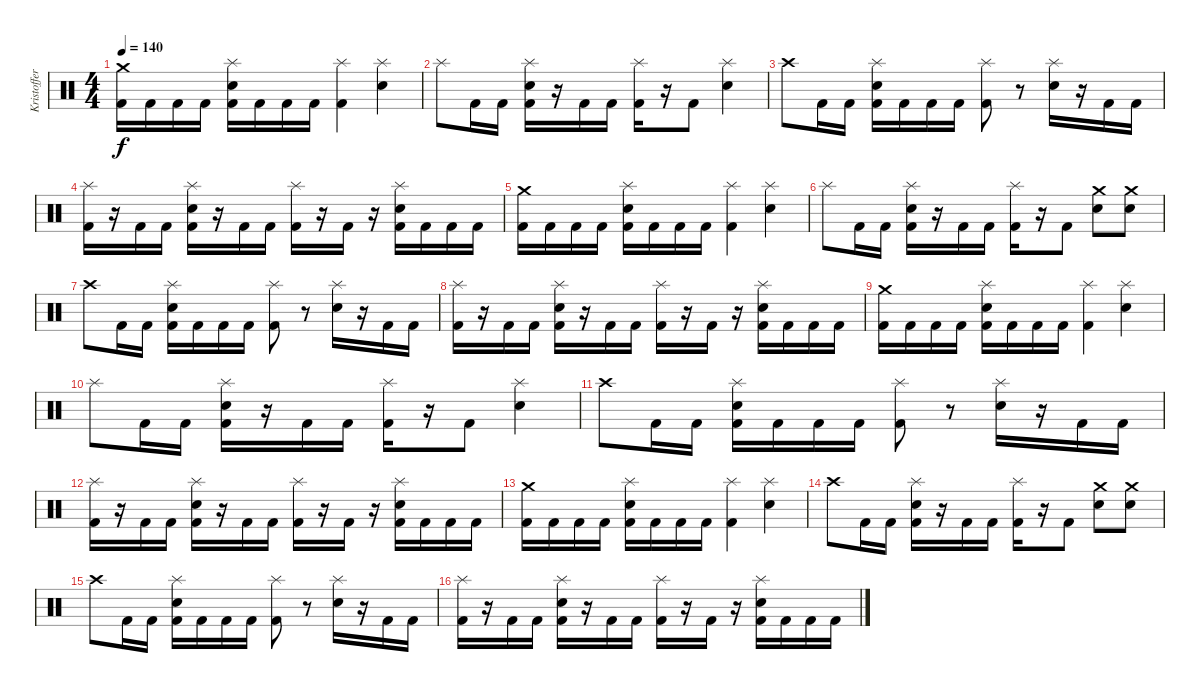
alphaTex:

\track ("Kristoffer (Drums)" "Kristoffer") {instrument percussion}
\staff {score}
\articulation defaults
\ts (4 4)
\tempo 140
\clef neutral
\ks c
("Kick (hit) 2" "Crash medium (hit)").16{dy f} "Kick (hit) 2".16 "Kick (hit) 2".16 "Kick (hit) 2".16 ("Kick (hit) 2" "Electric Snare (hit)" "Splash (hit)").16 "Kick (hit) 2".16 "Kick (hit) 2".16 "Kick (hit) 2".16 ("Kick (hit) 2" "Splash (hit)").4 ("Electric Snare (hit)" "Splash (hit)").4 |
"Splash (hit)".8 "Kick (hit) 2".16 "Kick (hit) 2".16 ("Kick (hit) 2" "Electric Snare (hit)" "Splash (hit)").16 r.16 "Kick (hit) 2".16 "Kick (hit) 2".16 ("Kick (hit) 2" "Splash (hit)").16 r.16 "Kick (hit) 2".8 ("Electric Snare (hit)" "Splash (hit)").4 |
"Crash high (hit)".8 "Kick (hit) 2".16 "Kick (hit) 2".16 ("Kick (hit) 2" "Electric Snare (hit)" "Splash (hit)").16 "Kick (hit) 2".16 "Kick (hit) 2".16 "Kick (hit) 2".16 ("Kick (hit) 2" "Splash (hit)").8 r.8 ("Electric Snare (hit)" "Splash (hit)").16 r.16 "Kick (hit) 2".16 "Kick (hit) 2".16 |
("Kick (hit) 2" "Splash (hit)").16 r.16 "Kick (hit) 2".16 "Kick (hit) 2".16 ("Kick (hit) 2" "Electric Snare (hit)" "Splash (hit)").16 r.16 "Kick (hit) 2".16 "Kick (hit) 2".16 ("Kick (hit) 2" "Splash (hit)").16 r.16 "Kick (hit) 2".16 r.16 ("Kick (hit) 2" "Electric Snare (hit)" "Splash (hit)").16 "Kick (hit) 2".16 "Kick (hit) 2".16 "Kick (hit) 2".16 |
("Kick (hit) 2" "Crash medium (hit)").16 "Kick (hit) 2".16 "Kick (hit) 2".16 "Kick (hit) 2".16 ("Kick (hit) 2" "Electric Snare (hit)" "Splash (hit)").16 "Kick (hit) 2".16 "Kick (hit) 2".16 "Kick (hit) 2".16 ("Kick (hit) 2" "Splash (hit)").4 ("Electric Snare (hit)" "Splash (hit)").4 |
"Splash (hit)".8 "Kick (hit) 2".16 "Kick (hit) 2".16 ("Kick (hit) 2" "Electric Snare (hit)" "Splash (hit)").16 r.16 "Kick (hit) 2".16 "Kick (hit) 2".16 ("Kick (hit) 2" "Splash (hit)").16 r.16 "Kick (hit) 2".8 ("Electric Snare (hit)" "Crash medium (hit)").8 ("Electric Snare (hit)" "Crash medium (hit)").8 |
"Crash high (hit)".8 "Kick (hit) 2".16 "Kick (hit) 2".16 ("Kick (hit) 2" "Electric Snare (hit)" "Splash (hit)").16 "Kick (hit) 2".16 "Kick (hit) 2".16 "Kick (hit) 2".16 ("Kick (hit) 2" "Splash (hit)").8 r.8 ("Electric Snare (hit)" "Splash (hit)").16 r.16 "Kick (hit) 2".16 "Kick (hit) 2".16 |
("Kick (hit) 2" "Splash (hit)").16 r.16 "Kick (hit) 2".16 "Kick (hit) 2".16 ("Kick (hit) 2" "Electric Snare (hit)" "Splash (hit)").16 r.16 "Kick (hit) 2".16 "Kick (hit) 2".16 ("Kick (hit) 2" "Splash (hit)").16 r.16 "Kick (hit) 2".16 r.16 ("Kick (hit) 2" "Electric Snare (hit)" "Splash (hit)").16 "Kick (hit) 2".16 "Kick (hit) 2".16 "Kick (hit) 2".16 |
("Kick (hit) 2" "Crash medium (hit)").16 "Kick (hit) 2".16 "Kick (hit) 2".16 "Kick (hit) 2".16 ("Kick (hit) 2" "Electric Snare (hit)" "Splash (hit)").16 "Kick (hit) 2".16 "Kick (hit) 2".16 "Kick (hit) 2".16 ("Kick (hit) 2" "Splash (hit)").4 ("Electric Snare (hit)" "Splash (hit)").4 |
"Splash (hit)".8 "Kick (hit) 2".16 "Kick (hit) 2".16 ("Kick (hit) 2" "Electric Snare (hit)" "Splash (hit)").16 r.16 "Kick (hit) 2".16 "Kick (hit) 2".16 ("Kick (hit) 2" "Splash (hit)").16 r.16 "Kick (hit) 2".8 ("Electric Snare (hit)" "Splash (hit)").4 |
"Crash high (hit)".8 "Kick (hit) 2".16 "Kick (hit) 2".16 ("Kick (hit) 2" "Electric Snare (hit)" "Splash (hit)").16 "Kick (hit) 2".16 "Kick (hit) 2".16 "Kick (hit) 2".16 ("Kick (hit) 2" "Splash (hit)").8 r.8 ("Electric Snare (hit)" "Splash (hit)").16 r.16 "Kick (hit) 2".16 "Kick (hit) 2".16 |
("Kick (hit) 2" "Splash (hit)").16 r.16 "Kick (hit) 2".16 "Kick (hit) 2".16 ("Kick (hit) 2" "Electric Snare (hit)" "Splash (hit)").16 r.16 "Kick (hit) 2".16 "Kick (hit) 2".16 ("Kick (hit) 2" "Splash (hit)").16 r.16 "Kick (hit) 2".16 r.16 ("Kick (hit) 2" "Electric Snare (hit)" "Splash (hit)").16 "Kick (hit) 2".16 "Kick (hit) 2".16 "Kick (hit) 2".16 |
("Kick (hit) 2" "Crash medium (hit)").16 "Kick (hit) 2".16 "Kick (hit) 2".16 "Kick (hit) 2".16 ("Kick (hit) 2" "Electric Snare (hit)" "Splash (hit)").16 "Kick (hit) 2".16 "Kick (hit) 2".16 "Kick (hit) 2".16 ("Kick (hit) 2" "Splash (hit)").4 ("Electric Snare (hit)" "Splash (hit)").4 |
"Crash high (hit)".8 "Kick (hit) 2".16 "Kick (hit) 2".16 ("Kick (hit) 2" "Electric Snare (hit)" "Splash (hit)").16 r.16 "Kick (hit) 2".16 "Kick (hit) 2".16 ("Kick (hit) 2" "Splash (hit)").16 r.16 "Kick (hit) 2".8 ("Electric Snare (hit)" "Crash medium (hit)").8 ("Electric Snare (hit)" "Crash medium (hit)").8 |
"Crash high (hit)".8 "Kick (hit) 2".16 "Kick (hit) 2".16 ("Kick (hit) 2" "Electric Snare (hit)" "Splash (hit)").16 "Kick (hit) 2".16 "Kick (hit) 2".16 "Kick (hit) 2".16 ("Kick (hit) 2" "Splash (hit)").8 r.8 ("Electric Snare (hit)" "Splash (hit)").16 r.16 "Kick (hit) 2".16 "Kick (hit) 2".16 |
("Kick (hit) 2" "Splash (hit)").16 r.16 "Kick (hit) 2".16 "Kick (hit) 2".16 ("Kick (hit) 2" "Electric Snare (hit)" "Splash (hit)").16 r.16 "Kick (hit) 2".16 "Kick (hit) 2".16 ("Kick (hit) 2" "Splash (hit)").16 r.16 "Kick (hit) 2".16 r.16 ("Kick (hit) 2" "Electric Snare (hit)" "Splash (hit)").16 "Kick (hit) 2".16 "Kick (hit) 2".16 "Kick (hit) 2".16
